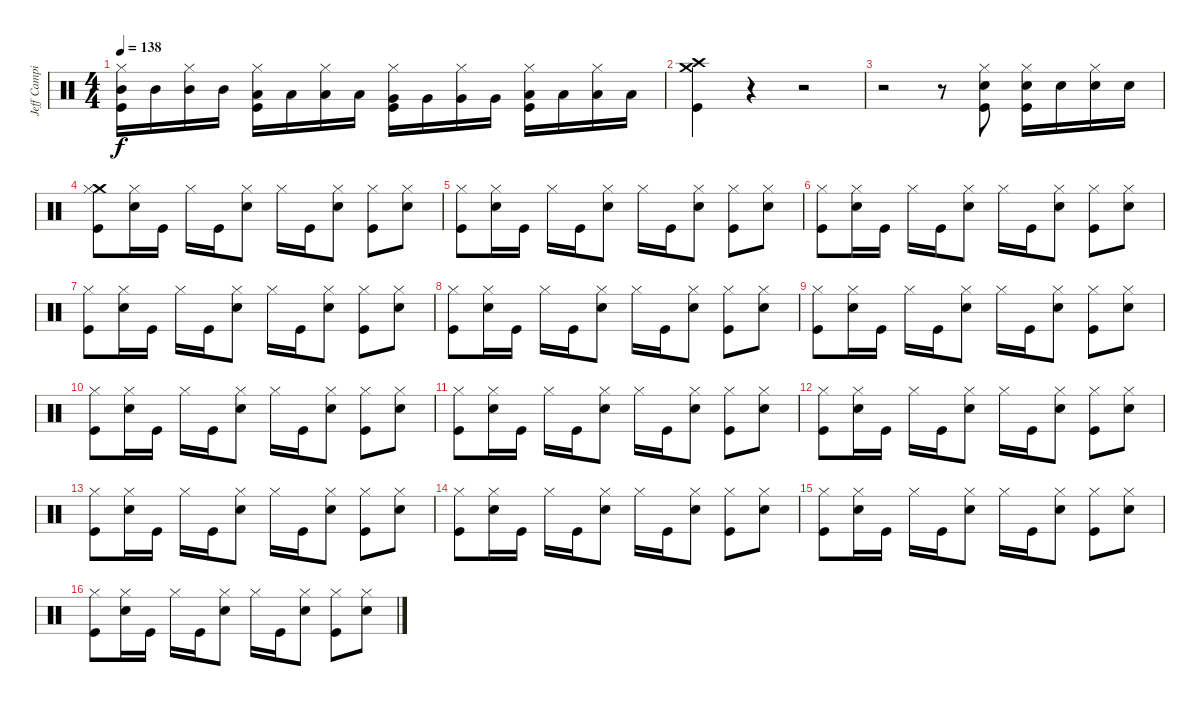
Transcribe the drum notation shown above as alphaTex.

\track ("Jeff Campitelli" "Jeff Campi") {instrument percussion}
\staff {score}
\articulation defaults
\ts (4 4)
\tempo 138
\clef neutral
\ks c
("Mid Tom (hit)" "Hi-Hat (closed)" "Kick (hit)").16{dy f} "Mid Tom (hit)".16 ("Mid Tom (hit)" "Hi-Hat (closed)").16 "Mid Tom (hit)".16 ("Low Tom (hit)" "Hi-Hat (closed)" "Kick (hit)").16 "Low Tom (hit)".16 ("Low Tom (hit)" "Hi-Hat (closed)").16 "Low Tom (hit)".16 ("Very Low Tom (hit)" "Hi-Hat (closed)" "Kick (hit)").16 "Very Low Tom (hit)".16 ("Very Low Tom (hit)" "Hi-Hat (closed)").16 "Very Low Tom (hit)".16 ("Low Floor Tom (hit)" "Hi-Hat (closed)" "Kick (hit)").16 "Low Floor Tom (hit)".16 ("Low Floor Tom (hit)" "Hi-Hat (closed)").16 "Low Floor Tom (hit)".16 |
("Crash medium (hit)" "Crash high (hit)" "Kick (hit)").4 r.4 r.2 |
r.2 r.8 ("Electric Snare (hit)" "Hi-Hat (closed)" "Kick (hit)").8 ("Electric Snare (hit)" "Hi-Hat (closed)" "Kick (hit)").16 "Electric Snare (hit)".16 ("Electric Snare (hit)" "Hi-Hat (closed)").16 "Electric Snare (hit)".16 |
("Crash medium (hit)" "Hi-Hat (closed)" "Kick (hit)").8 ("Electric Snare (hit)" "Hi-Hat (closed)").16 "Kick (hit)".16 "Hi-Hat (closed)".16 "Kick (hit)".16 ("Electric Snare (hit)" "Hi-Hat (closed)").8 "Hi-Hat (closed)".16 "Kick (hit)".16 ("Electric Snare (hit)" "Hi-Hat (closed)").8 ("Hi-Hat (closed)" "Kick (hit)").8 ("Electric Snare (hit)" "Hi-Hat (closed)").8 |
("Hi-Hat (closed)" "Kick (hit)").8 ("Electric Snare (hit)" "Hi-Hat (closed)").16 "Kick (hit)".16 "Hi-Hat (closed)".16 "Kick (hit)".16 ("Electric Snare (hit)" "Hi-Hat (closed)").8 "Hi-Hat (closed)".16 "Kick (hit)".16 ("Electric Snare (hit)" "Hi-Hat (closed)").8 ("Hi-Hat (closed)" "Kick (hit)").8 ("Electric Snare (hit)" "Hi-Hat (closed)").8 |
("Hi-Hat (closed)" "Kick (hit)").8 ("Electric Snare (hit)" "Hi-Hat (closed)").16 "Kick (hit)".16 "Hi-Hat (closed)".16 "Kick (hit)".16 ("Electric Snare (hit)" "Hi-Hat (closed)").8 "Hi-Hat (closed)".16 "Kick (hit)".16 ("Electric Snare (hit)" "Hi-Hat (closed)").8 ("Hi-Hat (closed)" "Kick (hit)").8 ("Electric Snare (hit)" "Hi-Hat (closed)").8 |
("Hi-Hat (closed)" "Kick (hit)").8 ("Electric Snare (hit)" "Hi-Hat (closed)").16 "Kick (hit)".16 "Hi-Hat (closed)".16 "Kick (hit)".16 ("Electric Snare (hit)" "Hi-Hat (closed)").8 "Hi-Hat (closed)".16 "Kick (hit)".16 ("Electric Snare (hit)" "Hi-Hat (closed)").8 ("Hi-Hat (closed)" "Kick (hit)").8 ("Electric Snare (hit)" "Hi-Hat (closed)").8 |
("Hi-Hat (closed)" "Kick (hit)").8 ("Electric Snare (hit)" "Hi-Hat (closed)").16 "Kick (hit)".16 "Hi-Hat (closed)".16 "Kick (hit)".16 ("Electric Snare (hit)" "Hi-Hat (closed)").8 "Hi-Hat (closed)".16 "Kick (hit)".16 ("Electric Snare (hit)" "Hi-Hat (closed)").8 ("Hi-Hat (closed)" "Kick (hit)").8 ("Electric Snare (hit)" "Hi-Hat (closed)").8 |
("Hi-Hat (closed)" "Kick (hit)").8 ("Electric Snare (hit)" "Hi-Hat (closed)").16 "Kick (hit)".16 "Hi-Hat (closed)".16 "Kick (hit)".16 ("Electric Snare (hit)" "Hi-Hat (closed)").8 "Hi-Hat (closed)".16 "Kick (hit)".16 ("Electric Snare (hit)" "Hi-Hat (closed)").8 ("Hi-Hat (closed)" "Kick (hit)").8 ("Electric Snare (hit)" "Hi-Hat (closed)").8 |
("Hi-Hat (closed)" "Kick (hit)").8 ("Electric Snare (hit)" "Hi-Hat (closed)").16 "Kick (hit)".16 "Hi-Hat (closed)".16 "Kick (hit)".16 ("Electric Snare (hit)" "Hi-Hat (closed)").8 "Hi-Hat (closed)".16 "Kick (hit)".16 ("Electric Snare (hit)" "Hi-Hat (closed)").8 ("Hi-Hat (closed)" "Kick (hit)").8 ("Electric Snare (hit)" "Hi-Hat (closed)").8 |
("Hi-Hat (closed)" "Kick (hit)").8 ("Electric Snare (hit)" "Hi-Hat (closed)").16 "Kick (hit)".16 "Hi-Hat (closed)".16 "Kick (hit)".16 ("Electric Snare (hit)" "Hi-Hat (closed)").8 "Hi-Hat (closed)".16 "Kick (hit)".16 ("Electric Snare (hit)" "Hi-Hat (closed)").8 ("Hi-Hat (closed)" "Kick (hit)").8 ("Electric Snare (hit)" "Hi-Hat (closed)").8 |
("Hi-Hat (closed)" "Kick (hit)").8 ("Electric Snare (hit)" "Hi-Hat (closed)").16 "Kick (hit)".16 "Hi-Hat (closed)".16 "Kick (hit)".16 ("Electric Snare (hit)" "Hi-Hat (closed)").8 "Hi-Hat (closed)".16 "Kick (hit)".16 ("Electric Snare (hit)" "Hi-Hat (closed)").8 ("Hi-Hat (closed)" "Kick (hit)").8 ("Electric Snare (hit)" "Hi-Hat (closed)").8 |
("Hi-Hat (closed)" "Kick (hit)").8 ("Electric Snare (hit)" "Hi-Hat (closed)").16 "Kick (hit)".16 "Hi-Hat (closed)".16 "Kick (hit)".16 ("Electric Snare (hit)" "Hi-Hat (closed)").8 "Hi-Hat (closed)".16 "Kick (hit)".16 ("Electric Snare (hit)" "Hi-Hat (closed)").8 ("Hi-Hat (closed)" "Kick (hit)").8 ("Electric Snare (hit)" "Hi-Hat (closed)").8 |
("Hi-Hat (closed)" "Kick (hit)").8 ("Electric Snare (hit)" "Hi-Hat (closed)").16 "Kick (hit)".16 "Hi-Hat (closed)".16 "Kick (hit)".16 ("Electric Snare (hit)" "Hi-Hat (closed)").8 "Hi-Hat (closed)".16 "Kick (hit)".16 ("Electric Snare (hit)" "Hi-Hat (closed)").8 ("Hi-Hat (closed)" "Kick (hit)").8 ("Electric Snare (hit)" "Hi-Hat (closed)").8 |
("Hi-Hat (closed)" "Kick (hit)").8 ("Electric Snare (hit)" "Hi-Hat (closed)").16 "Kick (hit)".16 "Hi-Hat (closed)".16 "Kick (hit)".16 ("Electric Snare (hit)" "Hi-Hat (closed)").8 "Hi-Hat (closed)".16 "Kick (hit)".16 ("Electric Snare (hit)" "Hi-Hat (closed)").8 ("Hi-Hat (closed)" "Kick (hit)").8 ("Electric Snare (hit)" "Hi-Hat (closed)").8 |
("Hi-Hat (closed)" "Kick (hit)").8 ("Electric Snare (hit)" "Hi-Hat (closed)").16 "Kick (hit)".16 "Hi-Hat (closed)".16 "Kick (hit)".16 ("Electric Snare (hit)" "Hi-Hat (closed)").8 "Hi-Hat (closed)".16 "Kick (hit)".16 ("Electric Snare (hit)" "Hi-Hat (closed)").8 ("Hi-Hat (closed)" "Kick (hit)").8 ("Electric Snare (hit)" "Hi-Hat (closed)").8
